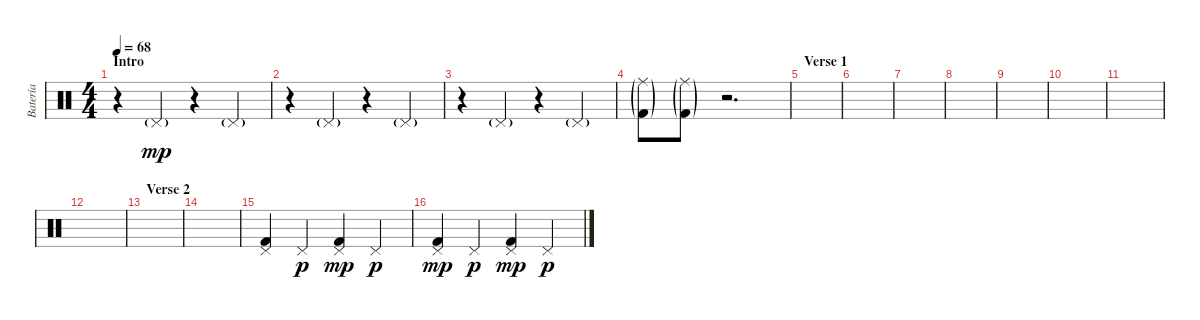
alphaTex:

\track ("Batería" "Batería") {instrument percussion}
\staff {score}
\articulation defaults
\ts (4 4)
\section ("" "Intro")
\tempo 68
\clef neutral
\ks c
r.4{dy mp} "Pedal Hi-Hat (hit)"{g}.4 r.4 "Pedal Hi-Hat (hit)"{g}.4 |
r.4 "Pedal Hi-Hat (hit)"{g}.4 r.4 "Pedal Hi-Hat (hit)"{g}.4 |
r.4 "Pedal Hi-Hat (hit)"{g}.4 r.4 "Pedal Hi-Hat (hit)"{g}.4 |
("Ride (middle)"{g} "Kick (hit) 2"{g}).8 ("Ride (middle)"{g} "Kick (hit) 2"{g}).8 r.2{d} |
\section ("" "Verse 1")
|
|
|
|
|
|
|
|
\section ("" "Verse 2")
|
|
("Pedal Hi-Hat (hit)" "Kick (hit) 2").4 "Pedal Hi-Hat (hit)".4{dy p} ("Pedal Hi-Hat (hit)" "Kick (hit) 2").4{dy mp} "Pedal Hi-Hat (hit)".4{dy p} |
("Pedal Hi-Hat (hit)" "Kick (hit) 2").4{dy mp} "Pedal Hi-Hat (hit)".4{dy p} ("Pedal Hi-Hat (hit)" "Kick (hit) 2").4{dy mp} "Pedal Hi-Hat (hit)".4{dy p}
